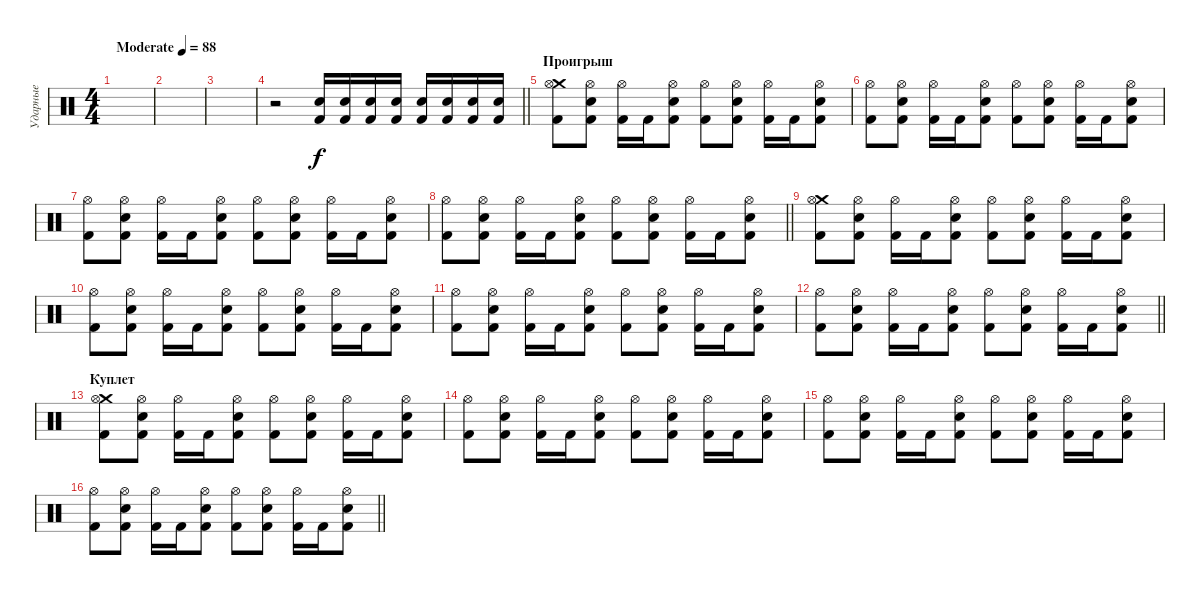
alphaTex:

\track ("Ударные" "Ударные") {instrument percussion}
\staff {score}
\articulation defaults
\ts (4 4)
\tempo (88 "Moderate")
\clef neutral
\ks c
|
|
|
\barLineRight lightlight
r.2 ("Snare (hit) 2" "Kick (hit) 2").16 ("Snare (hit) 2" "Kick (hit) 2").16 ("Snare (hit) 2" "Kick (hit) 2").16 ("Snare (hit) 2" "Kick (hit) 2").16 ("Snare (hit) 2" "Kick (hit) 2").16 ("Snare (hit) 2" "Kick (hit) 2").16 ("Snare (hit) 2" "Kick (hit) 2").16 ("Snare (hit) 2" "Kick (hit) 2").16 |
\section ("" "Проигрыш")
("Kick (hit) 2" "Crash medium (hit)" "Hi-Hat (open)").8 ("Snare (hit) 2" "Kick (hit) 2" "Hi-Hat (open)").8 ("Kick (hit) 2" "Hi-Hat (open)").16 "Kick (hit) 2".16 ("Snare (hit) 2" "Kick (hit) 2" "Hi-Hat (open)").8 ("Kick (hit) 2" "Hi-Hat (open)").8 ("Snare (hit) 2" "Kick (hit) 2" "Hi-Hat (open)").8 ("Kick (hit) 2" "Hi-Hat (open)").16 "Kick (hit) 2".16 ("Snare (hit) 2" "Kick (hit) 2" "Hi-Hat (open)").8 |
("Kick (hit) 2" "Hi-Hat (open)").8 ("Snare (hit) 2" "Kick (hit) 2" "Hi-Hat (open)").8 ("Kick (hit) 2" "Hi-Hat (open)").16 "Kick (hit) 2".16 ("Snare (hit) 2" "Kick (hit) 2" "Hi-Hat (open)").8 ("Kick (hit) 2" "Hi-Hat (open)").8 ("Snare (hit) 2" "Kick (hit) 2" "Hi-Hat (open)").8 ("Kick (hit) 2" "Hi-Hat (open)").16 "Kick (hit) 2".16 ("Snare (hit) 2" "Kick (hit) 2" "Hi-Hat (open)").8 |
("Kick (hit) 2" "Hi-Hat (open)").8 ("Snare (hit) 2" "Kick (hit) 2" "Hi-Hat (open)").8 ("Kick (hit) 2" "Hi-Hat (open)").16 "Kick (hit) 2".16 ("Snare (hit) 2" "Kick (hit) 2" "Hi-Hat (open)").8 ("Kick (hit) 2" "Hi-Hat (open)").8 ("Snare (hit) 2" "Kick (hit) 2" "Hi-Hat (open)").8 ("Kick (hit) 2" "Hi-Hat (open)").16 "Kick (hit) 2".16 ("Snare (hit) 2" "Kick (hit) 2" "Hi-Hat (open)").8 |
\barLineRight lightlight
("Kick (hit) 2" "Hi-Hat (open)").8 ("Snare (hit) 2" "Kick (hit) 2" "Hi-Hat (open)").8 ("Kick (hit) 2" "Hi-Hat (open)").16 "Kick (hit) 2".16 ("Snare (hit) 2" "Kick (hit) 2" "Hi-Hat (open)").8 ("Kick (hit) 2" "Hi-Hat (open)").8 ("Snare (hit) 2" "Kick (hit) 2" "Hi-Hat (open)").8 ("Kick (hit) 2" "Hi-Hat (open)").16 "Kick (hit) 2".16 ("Snare (hit) 2" "Kick (hit) 2" "Hi-Hat (open)").8 |
("Kick (hit) 2" "Crash medium (hit)" "Hi-Hat (open)").8 ("Snare (hit) 2" "Kick (hit) 2" "Hi-Hat (open)").8 ("Kick (hit) 2" "Hi-Hat (open)").16 "Kick (hit) 2".16 ("Snare (hit) 2" "Kick (hit) 2" "Hi-Hat (open)").8 ("Kick (hit) 2" "Hi-Hat (open)").8 ("Snare (hit) 2" "Kick (hit) 2" "Hi-Hat (open)").8 ("Kick (hit) 2" "Hi-Hat (open)").16 "Kick (hit) 2".16 ("Snare (hit) 2" "Kick (hit) 2" "Hi-Hat (open)").8 |
("Kick (hit) 2" "Hi-Hat (open)").8 ("Snare (hit) 2" "Kick (hit) 2" "Hi-Hat (open)").8 ("Kick (hit) 2" "Hi-Hat (open)").16 "Kick (hit) 2".16 ("Snare (hit) 2" "Kick (hit) 2" "Hi-Hat (open)").8 ("Kick (hit) 2" "Hi-Hat (open)").8 ("Snare (hit) 2" "Kick (hit) 2" "Hi-Hat (open)").8 ("Kick (hit) 2" "Hi-Hat (open)").16 "Kick (hit) 2".16 ("Snare (hit) 2" "Kick (hit) 2" "Hi-Hat (open)").8 |
("Kick (hit) 2" "Hi-Hat (open)").8 ("Snare (hit) 2" "Kick (hit) 2" "Hi-Hat (open)").8 ("Kick (hit) 2" "Hi-Hat (open)").16 "Kick (hit) 2".16 ("Snare (hit) 2" "Kick (hit) 2" "Hi-Hat (open)").8 ("Kick (hit) 2" "Hi-Hat (open)").8 ("Snare (hit) 2" "Kick (hit) 2" "Hi-Hat (open)").8 ("Kick (hit) 2" "Hi-Hat (open)").16 "Kick (hit) 2".16 ("Snare (hit) 2" "Kick (hit) 2" "Hi-Hat (open)").8 |
\barLineRight lightlight
("Kick (hit) 2" "Hi-Hat (open)").8 ("Snare (hit) 2" "Kick (hit) 2" "Hi-Hat (open)").8 ("Kick (hit) 2" "Hi-Hat (open)").16 "Kick (hit) 2".16 ("Snare (hit) 2" "Kick (hit) 2" "Hi-Hat (open)").8 ("Kick (hit) 2" "Hi-Hat (open)").8 ("Snare (hit) 2" "Kick (hit) 2" "Hi-Hat (open)").8 ("Kick (hit) 2" "Hi-Hat (open)").16 "Kick (hit) 2".16 ("Snare (hit) 2" "Kick (hit) 2" "Hi-Hat (open)").8 |
\section ("" "Куплет")
("Kick (hit) 2" "Crash medium (hit)" "Hi-Hat (open)").8 ("Snare (hit) 2" "Kick (hit) 2" "Hi-Hat (open)").8 ("Kick (hit) 2" "Hi-Hat (open)").16 "Kick (hit) 2".16 ("Snare (hit) 2" "Kick (hit) 2" "Hi-Hat (open)").8 ("Kick (hit) 2" "Hi-Hat (open)").8 ("Snare (hit) 2" "Kick (hit) 2" "Hi-Hat (open)").8 ("Kick (hit) 2" "Hi-Hat (open)").16 "Kick (hit) 2".16 ("Snare (hit) 2" "Kick (hit) 2" "Hi-Hat (open)").8 |
("Kick (hit) 2" "Hi-Hat (open)").8 ("Snare (hit) 2" "Kick (hit) 2" "Hi-Hat (open)").8 ("Kick (hit) 2" "Hi-Hat (open)").16 "Kick (hit) 2".16 ("Snare (hit) 2" "Kick (hit) 2" "Hi-Hat (open)").8 ("Kick (hit) 2" "Hi-Hat (open)").8 ("Snare (hit) 2" "Kick (hit) 2" "Hi-Hat (open)").8 ("Kick (hit) 2" "Hi-Hat (open)").16 "Kick (hit) 2".16 ("Snare (hit) 2" "Kick (hit) 2" "Hi-Hat (open)").8 |
("Kick (hit) 2" "Hi-Hat (open)").8 ("Snare (hit) 2" "Kick (hit) 2" "Hi-Hat (open)").8 ("Kick (hit) 2" "Hi-Hat (open)").16 "Kick (hit) 2".16 ("Snare (hit) 2" "Kick (hit) 2" "Hi-Hat (open)").8 ("Kick (hit) 2" "Hi-Hat (open)").8 ("Snare (hit) 2" "Kick (hit) 2" "Hi-Hat (open)").8 ("Kick (hit) 2" "Hi-Hat (open)").16 "Kick (hit) 2".16 ("Snare (hit) 2" "Kick (hit) 2" "Hi-Hat (open)").8 |
\barLineRight lightlight
("Kick (hit) 2" "Hi-Hat (open)").8 ("Snare (hit) 2" "Kick (hit) 2" "Hi-Hat (open)").8 ("Kick (hit) 2" "Hi-Hat (open)").16 "Kick (hit) 2".16 ("Snare (hit) 2" "Kick (hit) 2" "Hi-Hat (open)").8 ("Kick (hit) 2" "Hi-Hat (open)").8 ("Snare (hit) 2" "Kick (hit) 2" "Hi-Hat (open)").8 ("Kick (hit) 2" "Hi-Hat (open)").16 "Kick (hit) 2".16 ("Snare (hit) 2" "Kick (hit) 2" "Hi-Hat (open)").8
